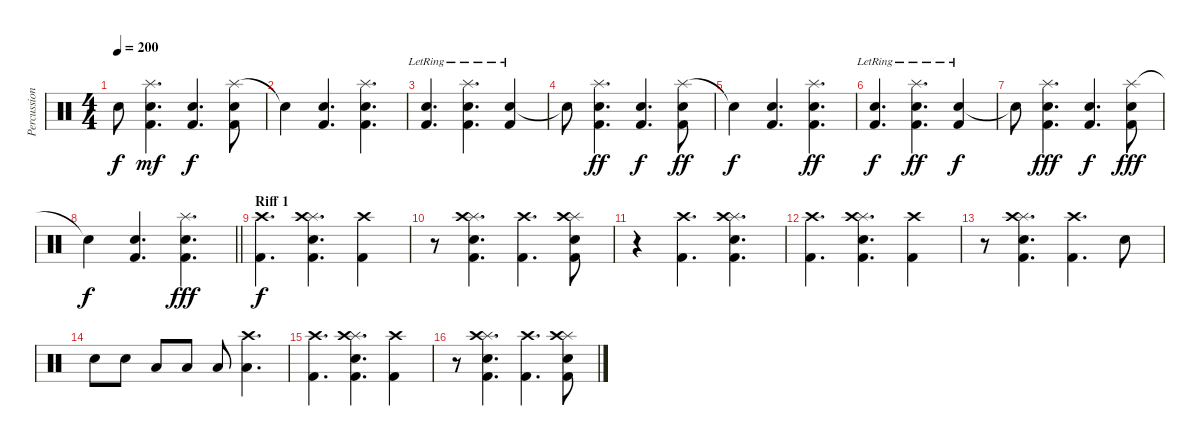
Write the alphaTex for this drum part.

\track ("Percussion" "Percussion") {instrument percussion}
\staff {score}
\articulation defaults
\ts (4 4)
\tempo 200
\clef neutral
\ks c "Snare (hit)"{t}.8{dy f}
("Splash (hit)" "Electric Snare (hit)" "Kick (hit) 2").4{d dy mf} ("Electric Snare (hit)" "Kick (hit) 2").4{d dy f} ("Splash (hit)" "Electric Snare (hit)" "Kick (hit) 2").8 |
"Snare (hit)"{t}.4 ("Electric Snare (hit)" "Kick (hit) 2").4{d} ("Splash (hit)" "Electric Snare (hit)" "Kick (hit) 2").4{d} |
("Electric Snare (hit)"{lr} "Kick (hit) 2").4{d} ("Splash (hit)" "Electric Snare (hit)"{lr} "Kick (hit) 2").4{d} ("Electric Snare (hit)"{lr} "Kick (hit) 2").4 |
"Snare (hit)"{t}.8 ("Splash (hit)" "Electric Snare (hit)" "Kick (hit) 2").4{d dy ff} ("Electric Snare (hit)" "Kick (hit) 2").4{d dy f} ("Splash (hit)" "Electric Snare (hit)" "Kick (hit) 2").8{dy ff} |
"Snare (hit)"{t}.4{dy f} ("Electric Snare (hit)" "Kick (hit) 2").4{d} ("Splash (hit)" "Electric Snare (hit)" "Kick (hit) 2").4{d dy ff} |
("Electric Snare (hit)"{lr} "Kick (hit) 2").4{d dy f} ("Splash (hit)" "Electric Snare (hit)"{lr} "Kick (hit) 2").4{d dy ff} ("Electric Snare (hit)"{lr} "Kick (hit) 2").4{dy f} |
"Snare (hit)"{t}.8 ("Splash (hit)" "Electric Snare (hit)" "Kick (hit) 2").4{d dy fff} ("Electric Snare (hit)" "Kick (hit) 2").4{d dy f} ("Splash (hit)" "Electric Snare (hit)" "Kick (hit) 2").8{dy fff} |
\barLineRight lightlight "Snare (hit)"{t}.4{dy f}
("Electric Snare (hit)" "Kick (hit) 2").4{d} ("Splash (hit)" "Electric Snare (hit)" "Kick (hit) 2").4{d dy fff} |
\section ("" "Riff 1")
("Crash high (hit)" "Kick (hit) 2").4{d dy f} ("Splash (hit)" "Crash high (hit)" "Electric Snare (hit)" "Kick (hit) 2").4{d} ("Crash high (hit)" "Kick (hit) 2").4 |
r.8 ("Splash (hit)" "Crash high (hit)" "Electric Snare (hit)" "Kick (hit) 2").4{d} ("Crash high (hit)" "Kick (hit) 2").4{d} ("Splash (hit)" "Crash high (hit)" "Electric Snare (hit)" "Kick (hit) 2").8 |
r.4 ("Crash high (hit)" "Kick (hit) 2").4{d} ("Splash (hit)" "Crash high (hit)" "Electric Snare (hit)" "Kick (hit) 2").4{d} |
("Crash high (hit)" "Kick (hit) 2").4{d} ("Splash (hit)" "Crash high (hit)" "Electric Snare (hit)" "Kick (hit) 2").4{d} ("Crash high (hit)" "Kick (hit) 2").4 |
r.8 ("Splash (hit)" "Crash high (hit)" "Electric Snare (hit)" "Kick (hit) 2").4{d} ("Crash high (hit)" "Kick (hit) 2").4{d} "Snare (hit) 2".8 |
"Snare (hit) 2".8 "Snare (hit) 2".8 "Low Tom (hit)".8 "Low Tom (hit)".8 "Low Tom (hit)".8 ("Crash high (hit)" "Low Floor Tom (hit)").4{d} |
("Crash high (hit)" "Kick (hit) 2").4{d} ("Splash (hit)" "Crash high (hit)" "Electric Snare (hit)" "Kick (hit) 2").4{d} ("Crash high (hit)" "Kick (hit) 2").4 |
r.8 ("Splash (hit)" "Crash high (hit)" "Electric Snare (hit)" "Kick (hit) 2").4{d} ("Crash high (hit)" "Kick (hit) 2").4{d} ("Splash (hit)" "Crash high (hit)" "Electric Snare (hit)" "Kick (hit) 2").8
